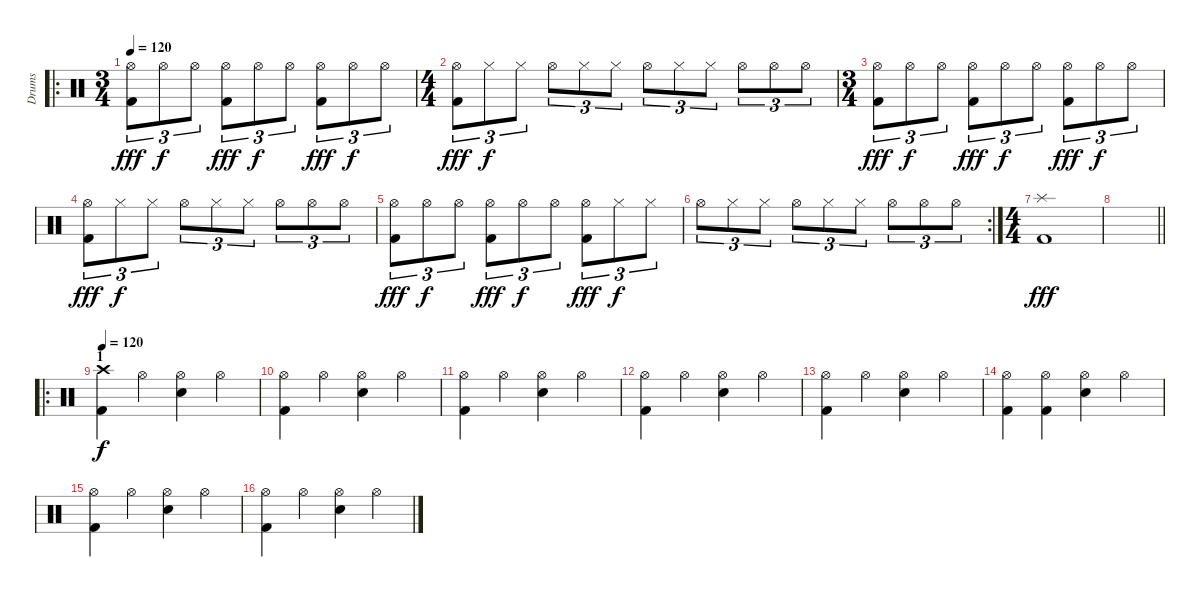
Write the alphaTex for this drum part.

\track ("Drums" "Drums") {instrument percussion}
\staff {score}
\articulation defaults
\ro
\ts (3 4)
\tempo 120
\tempo 110
\tempo 120
\clef neutral
\ks c
("Kick (hit) 2" "Hi-Hat (open)").8{tu (3 2) dy fff volume 9} "Hi-Hat (open)".8{tu (3 2) dy f} "Hi-Hat (open)".8{tu (3 2)} ("Kick (hit) 2" "Hi-Hat (open)").8{tu (3 2) dy fff} "Hi-Hat (open)".8{tu (3 2) dy f} "Hi-Hat (open)".8{tu (3 2)} ("Kick (hit) 2" "Hi-Hat (open)").8{tu (3 2) dy fff} "Hi-Hat (open)".8{tu (3 2) dy f} "Hi-Hat (open)".8{tu (3 2)} |
\ts (4 4)
("Kick (hit) 2" "Hi-Hat (open)").8{tu (3 2) dy fff} "Hi-Hat (closed)".8{tu (3 2) dy f} "Hi-Hat (closed)".8{tu (3 2)} "Hi-Hat (open)".8{tu (3 2)} "Hi-Hat (closed)".8{tu (3 2)} "Hi-Hat (closed)".8{tu (3 2)} "Hi-Hat (open)".8{tu (3 2)} "Hi-Hat (closed)".8{tu (3 2)} "Hi-Hat (closed)".8{tu (3 2)} "Hi-Hat (open)".8{tu (3 2)} "Hi-Hat (open)".8{tu (3 2)} "Hi-Hat (open)".8{tu (3 2)} |
\ts (3 4)
("Kick (hit) 2" "Hi-Hat (open)").8{tu (3 2) dy fff} "Hi-Hat (open)".8{tu (3 2) dy f} "Hi-Hat (open)".8{tu (3 2)} ("Kick (hit) 2" "Hi-Hat (open)").8{tu (3 2) dy fff} "Hi-Hat (open)".8{tu (3 2) dy f} "Hi-Hat (open)".8{tu (3 2)} ("Kick (hit) 2" "Hi-Hat (open)").8{tu (3 2) dy fff} "Hi-Hat (open)".8{tu (3 2) dy f} "Hi-Hat (open)".8{tu (3 2)} |
("Kick (hit) 2" "Hi-Hat (open)").8{tu (3 2) dy fff} "Hi-Hat (closed)".8{tu (3 2) dy f} "Hi-Hat (closed)".8{tu (3 2)} "Hi-Hat (open)".8{tu (3 2)} "Hi-Hat (closed)".8{tu (3 2)} "Hi-Hat (closed)".8{tu (3 2)} "Hi-Hat (open)".8{tu (3 2)} "Hi-Hat (open)".8{tu (3 2)} "Hi-Hat (open)".8{tu (3 2)} |
("Kick (hit) 2" "Hi-Hat (open)").8{tu (3 2) dy fff} "Hi-Hat (open)".8{tu (3 2) dy f} "Hi-Hat (open)".8{tu (3 2)} ("Kick (hit) 2" "Hi-Hat (open)").8{tu (3 2) dy fff} "Hi-Hat (open)".8{tu (3 2) dy f} "Hi-Hat (open)".8{tu (3 2)} ("Kick (hit) 2" "Hi-Hat (open)").8{tu (3 2) dy fff} "Hi-Hat (closed)".8{tu (3 2) dy f} "Hi-Hat (closed)".8{tu (3 2)} |
\rc 2 "Hi-Hat (open)".8{tu (3 2)} "Hi-Hat (closed)".8{tu (3 2)} "Hi-Hat (closed)".8{tu (3 2)} "Hi-Hat (open)".8{tu (3 2)} "Hi-Hat (closed)".8{tu (3 2)} "Hi-Hat (closed)".8{tu (3 2)} "Hi-Hat (open)".8{tu (3 2)} "Hi-Hat (open)".8{tu (3 2)} "Hi-Hat (open)".8{tu (3 2)}
|
\ts (4 4)
("Kick (hit) 2" "Splash (hit)").1{dy fff} |
\barLineRight lightlight
|
\ro
\section ("" "1")
\tempo 120
("Crash high (hit)" "Kick (hit) 2").4{dy f volume 13} "Hi-Hat (open)".4 ("Hi-Hat (open)" "Snare (hit) 2").4 "Hi-Hat (open)".4 |
("Hi-Hat (open)" "Kick (hit) 2").4 "Hi-Hat (open)".4 ("Hi-Hat (open)" "Snare (hit) 2").4 "Hi-Hat (open)".4 |
("Hi-Hat (open)" "Kick (hit) 2").4 "Hi-Hat (open)".4 ("Hi-Hat (open)" "Snare (hit) 2").4 "Hi-Hat (open)".4 |
("Hi-Hat (open)" "Kick (hit) 2").4 "Hi-Hat (open)".4 ("Hi-Hat (open)" "Snare (hit) 2").4 "Hi-Hat (open)".4 |
("Hi-Hat (open)" "Kick (hit) 2").4 "Hi-Hat (open)".4 ("Hi-Hat (open)" "Snare (hit) 2").4 "Hi-Hat (open)".4 |
("Hi-Hat (open)" "Kick (hit) 2").4 ("Hi-Hat (open)" "Kick (hit) 2").4 ("Hi-Hat (open)" "Snare (hit) 2").4 "Hi-Hat (open)".4 |
("Hi-Hat (open)" "Kick (hit) 2").4 "Hi-Hat (open)".4 ("Hi-Hat (open)" "Snare (hit) 2").4 "Hi-Hat (open)".4 |
("Hi-Hat (open)" "Kick (hit) 2").4 "Hi-Hat (open)".4 ("Hi-Hat (open)" "Snare (hit) 2").4 "Hi-Hat (open)".4
